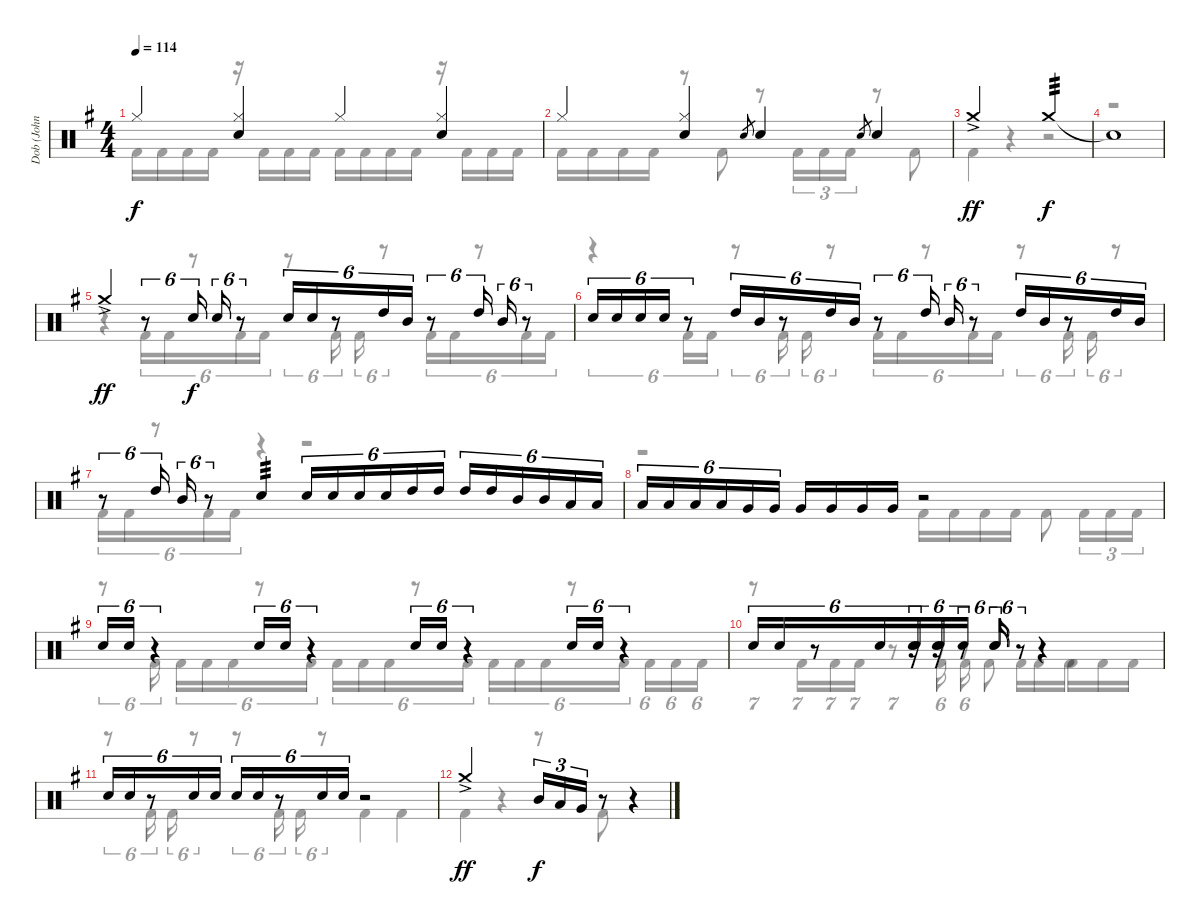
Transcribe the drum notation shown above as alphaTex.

\track ("Dob (John Macaluso)" "Dob (John ") {instrument percussion}
\staff {score}
\articulation defaults
\voice
\ts (4 4)
\tempo 114
\clef neutral
\ks g "Hi-Hat (closed)".4{dy f}
("Hi-Hat (closed)" "Electric Snare (hit)").4 "Hi-Hat (closed)".4 ("Hi-Hat (closed)" "Electric Snare (hit)").4 |
"Hi-Hat (closed)".4 ("Hi-Hat (closed)" "Electric Snare (hit)").4 "Electric Snare (hit)".8{gr} "Electric Snare (hit)".4 "Electric Snare (hit)".8{gr} "Electric Snare (hit)".4 |
"Crash medium (hit)"{ac}.2{dy ff} "Crash medium (hit)".2{tp 3 dy f} |
"Snare (hit)"{t}.1 |
"Crash medium (hit)"{ac}.4{dy ff} r.8{tu (6 4)} "Electric Snare (hit)".16{tu (6 4) dy f} "Electric Snare (hit)".16{tu (6 4)} r.8{tu (6 4)} "Electric Snare (hit)".16{tu (6 4)} "Electric Snare (hit)".16{tu (6 4)} r.8{tu (6 4)} "High Tom (hit)".16{tu (6 4)} "Mid Tom (hit)".16{tu (6 4)} r.8{tu (6 4)} "High Tom (hit)".16{tu (6 4)} "Mid Tom (hit)".16{tu (6 4)} r.8{tu (6 4)} |
"Electric Snare (hit)".16{tu (6 4)} "Electric Snare (hit)".16{tu (6 4)} "Electric Snare (hit)".16{tu (6 4)} "Electric Snare (hit)".16{tu (6 4)} r.8{tu (6 4)} "High Tom (hit)".16{tu (6 4)} "Mid Tom (hit)".16{tu (6 4)} r.8{tu (6 4)} "High Tom (hit)".16{tu (6 4)} "Mid Tom (hit)".16{tu (6 4)} r.8{tu (6 4)} "High Tom (hit)".16{tu (6 4)} "Mid Tom (hit)".16{tu (6 4)} r.8{tu (6 4)} "High Tom (hit)".16{tu (6 4)} "Mid Tom (hit)".16{tu (6 4)} r.8{tu (6 4)} "High Tom (hit)".16{tu (6 4)} "Mid Tom (hit)".16{tu (6 4)} |
r.8{tu (6 4)} "High Tom (hit)".16{tu (6 4)} "Mid Tom (hit)".16{tu (6 4)} r.8{tu (6 4)} "Electric Snare (hit)".4{tp 3} "Electric Snare (hit)".16{tu (6 4)} "Electric Snare (hit)".16{tu (6 4)} "Electric Snare (hit)".16{tu (6 4)} "Electric Snare (hit)".16{tu (6 4)} "High Tom (hit)".16{tu (6 4)} "High Tom (hit)".16{tu (6 4)} "High Tom (hit)".16{tu (6 4)} "High Tom (hit)".16{tu (6 4)} "Mid Tom (hit)".16{tu (6 4)} "Mid Tom (hit)".16{tu (6 4)} "Low Tom (hit)".16{tu (6 4)} "Low Tom (hit)".16{tu (6 4)} |
"Low Tom (hit)".16{tu (6 4)} "Low Tom (hit)".16{tu (6 4)} "Low Tom (hit)".16{tu (6 4)} "Low Tom (hit)".16{tu (6 4)} "Very Low Tom (hit)".16{tu (6 4)} "Very Low Tom (hit)".16{tu (6 4)} "Very Low Tom (hit)".16 "Very Low Tom (hit)".16 "Very Low Tom (hit)".16 "Very Low Tom (hit)".16 r.2 |
"Electric Snare (hit)".16{tu (6 4)} "Electric Snare (hit)".16{tu (6 4)} r.4{tu (6 4)} "Electric Snare (hit)".16{tu (6 4)} "Electric Snare (hit)".16{tu (6 4)} r.4{tu (6 4)} "Electric Snare (hit)".16{tu (6 4)} "Electric Snare (hit)".16{tu (6 4)} r.4{tu (6 4)} "Electric Snare (hit)".16{tu (6 4)} "Electric Snare (hit)".16{tu (6 4)} r.4{tu (6 4)} |
"Electric Snare (hit)".16{tu (6 4)} "Electric Snare (hit)".16{tu (6 4)} r.8{tu (6 4)} "Electric Snare (hit)".16{tu (6 4)} "Electric Snare (hit)".16{tu (6 4)} r.16{tu (6 4)} "Electric Snare (hit)".16{tu (6 4)} "Electric Snare (hit)".16{tu (6 4)} r.16{tu (6 4)} "Electric Snare (hit)".16{tu (6 4)} "Electric Snare (hit)".16{tu (6 4)} r.8{tu (6 4)} "Electric Snare (hit)".16{tu (6 4)} "Electric Snare (hit)".16{tu (6 4)} r.8{tu (6 4)} r.4 |
"Electric Snare (hit)".16{tu (6 4)} "Electric Snare (hit)".16{tu (6 4)} r.8{tu (6 4)} "Electric Snare (hit)".16{tu (6 4)} "Electric Snare (hit)".16{tu (6 4)} "Electric Snare (hit)".16{tu (6 4)} "Electric Snare (hit)".16{tu (6 4)} r.8{tu (6 4)} "Electric Snare (hit)".16{tu (6 4)} "Electric Snare (hit)".16{tu (6 4)} r.2 |
"Crash medium (hit)"{ac}.2{dy ff} "Mid Tom (hit)".16{tu (3 2) dy f} "Low Tom (hit)".16{tu (3 2)} "Very Low Tom (hit)".16{tu (3 2)} r.8 r.4 |
\voice
\clef neutral
\ottava regular
\simile none
\ks g "Kick (hit) 2".16{dy f} "Kick (hit) 2".16 "Kick (hit) 2".16 "Kick (hit) 2".16
r.16 "Kick (hit) 2".16 "Kick (hit) 2".16 "Kick (hit) 2".16 "Kick (hit) 2".16 "Kick (hit) 2".16 "Kick (hit) 2".16 "Kick (hit) 2".16 r.16 "Kick (hit) 2".16 "Kick (hit) 2".16 "Kick (hit) 2".16 |
"Kick (hit) 2".16 "Kick (hit) 2".16 "Kick (hit) 2".16 "Kick (hit) 2".16 r.8 "Kick (hit) 2".8 r.8 "Kick (hit) 2".16{tu (3 2)} "Kick (hit) 2".16{tu (3 2)} "Kick (hit) 2".16{tu (3 2)} r.8 "Kick (hit) 2".8 |
"Kick (hit) 2".4 r.4 r.2 |
r.1 |
r.4 "Kick (hit) 2".16{tu (6 4)} "Kick (hit) 2".16{tu (6 4)} r.8{tu (6 4)} "Kick (hit) 2".16{tu (6 4)} "Kick (hit) 2".16{tu (6 4)} r.8{tu (6 4)} "Kick (hit) 2".16{tu (6 4)} "Kick (hit) 2".16{tu (6 4)} r.8{tu (6 4)} "Kick (hit) 2".16{tu (6 4)} "Kick (hit) 2".16{tu (6 4)} r.8{tu (6 4)} "Kick (hit) 2".16{tu (6 4)} "Kick (hit) 2".16{tu (6 4)} |
r.4{tu (6 4)} "Kick (hit) 2".16{tu (6 4)} "Kick (hit) 2".16{tu (6 4)} r.8{tu (6 4)} "Kick (hit) 2".16{tu (6 4)} "Kick (hit) 2".16{tu (6 4)} r.8{tu (6 4)} "Kick (hit) 2".16{tu (6 4)} "Kick (hit) 2".16{tu (6 4)} r.8{tu (6 4)} "Kick (hit) 2".16{tu (6 4)} "Kick (hit) 2".16{tu (6 4)} r.8{tu (6 4)} "Kick (hit) 2".16{tu (6 4)} "Kick (hit) 2".16{tu (6 4)} r.8{tu (6 4)} |
"Kick (hit) 2".16{tu (6 4)} "Kick (hit) 2".16{tu (6 4)} r.8{tu (6 4)} "Kick (hit) 2".16{tu (6 4)} "Kick (hit) 2".16{tu (6 4)} r.4 r.2 |
r.2 "Kick (hit) 2".16 "Kick (hit) 2".16 "Kick (hit) 2".16 "Kick (hit) 2".16 "Kick (hit) 2".8 "Kick (hit) 2".16{tu (3 2)} "Kick (hit) 2".16{tu (3 2)} "Kick (hit) 2".16{tu (3 2)} |
r.8{tu (6 4)} "Kick (hit) 2".16{tu (6 4)} "Kick (hit) 2".16{tu (6 4)} "Kick (hit) 2".16{tu (6 4)} "Kick (hit) 2".16{tu (6 4)} r.8{tu (6 4)} "Kick (hit) 2".16{tu (6 4)} "Kick (hit) 2".16{tu (6 4)} "Kick (hit) 2".16{tu (6 4)} "Kick (hit) 2".16{tu (6 4)} r.8{tu (6 4)} "Kick (hit) 2".16{tu (6 4)} "Kick (hit) 2".16{tu (6 4)} "Kick (hit) 2".16{tu (6 4)} "Kick (hit) 2".16{tu (6 4)} r.8{tu (6 4)} "Kick (hit) 2".16{tu (6 4)} "Kick (hit) 2".16{tu (6 4)} "Kick (hit) 2".16{tu (6 4)} "Kick (hit) 2".16{tu (6 4)} |
r.8{tu (7 4)} "Kick (hit) 2".16{tu (7 4)} "Kick (hit) 2".16{tu (7 4)} "Kick (hit) 2".16{tu (7 4)} r.8{tu (7 4)} "Kick (hit) 2".16{tu (6 4)} r.8{tu (6 4)} "Kick (hit) 2".16{tu (6 4)} r.8{tu (6 4)} "Kick (hit) 2".8 "Kick (hit) 2".16 "Kick (hit) 2".16 "Kick (hit) 2".16 "Kick (hit) 2".16 "Kick (hit) 2".16 "Kick (hit) 2".16 |
r.8{tu (6 4)} "Kick (hit) 2".16{tu (6 4)} "Kick (hit) 2".16{tu (6 4)} r.8{tu (6 4)} r.8{tu (6 4)} "Kick (hit) 2".16{tu (6 4)} "Kick (hit) 2".16{tu (6 4)} r.8{tu (6 4)} "Kick (hit) 2".4 "Kick (hit) 2".4 |
"Kick (hit) 2".4 r.4 r.8 "Kick (hit) 2".8 r.4 |
